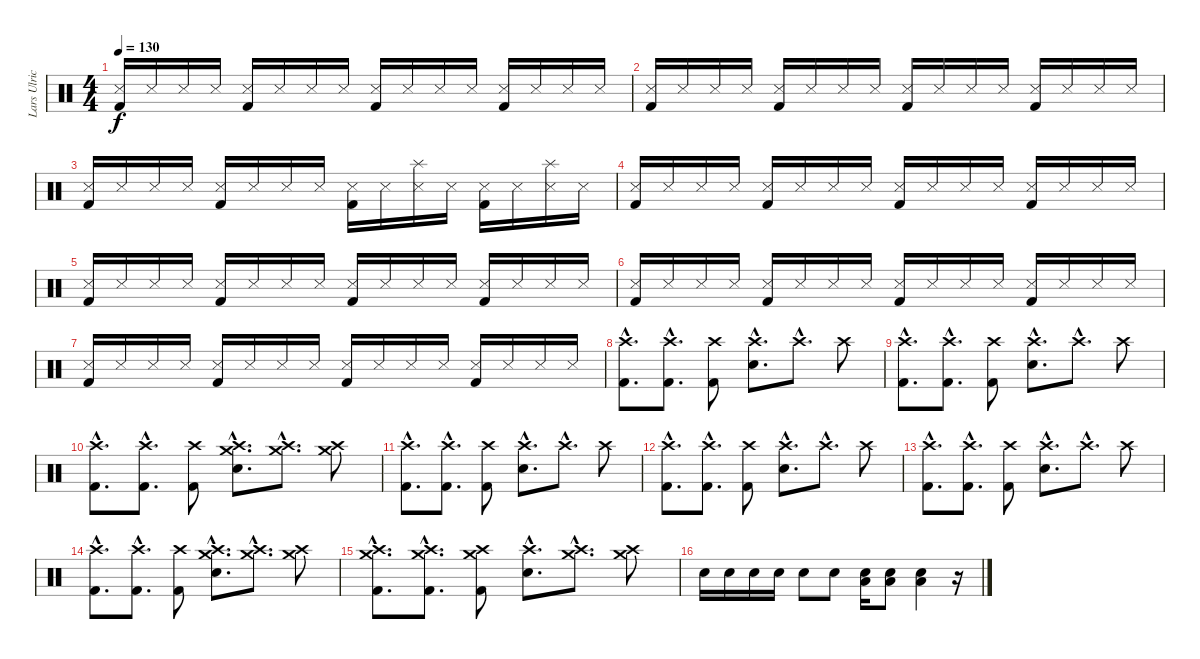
\track ("Lars Ulrich" "Lars Ulric") {instrument percussion}
\staff {score}
\articulation defaults
\ts (4 4)
\tempo 130
\clef neutral
\ks c
("Metronome (hit)" "Kick (hit) 2").16{dy f} "Snare (side stick) 3".16 "Snare (side stick) 3".16 "Snare (side stick) 3".16 ("Metronome (hit)" "Kick (hit) 2").16 "Snare (side stick) 3".16 "Snare (side stick) 3".16 "Snare (side stick) 3".16 ("Metronome (hit)" "Kick (hit) 2").16 "Snare (side stick) 3".16 "Snare (side stick) 3".16 "Snare (side stick) 3".16 ("Metronome (hit)" "Kick (hit) 2").16 "Snare (side stick) 3".16 "Snare (side stick) 3".16 "Snare (side stick) 3".16 |
("Metronome (hit)" "Kick (hit) 2").16 "Snare (side stick) 3".16 "Snare (side stick) 3".16 "Snare (side stick) 3".16 ("Metronome (hit)" "Kick (hit) 2").16 "Snare (side stick) 3".16 "Snare (side stick) 3".16 "Snare (side stick) 3".16 ("Metronome (hit)" "Kick (hit) 2").16 "Snare (side stick) 3".16 "Snare (side stick) 3".16 "Snare (side stick) 3".16 ("Metronome (hit)" "Kick (hit) 2").16 "Snare (side stick) 3".16 "Snare (side stick) 3".16 "Snare (side stick) 3".16 |
("Metronome (hit)" "Kick (hit) 2").16 "Snare (side stick) 3".16 "Snare (side stick) 3".16 "Snare (side stick) 3".16 ("Metronome (hit)" "Kick (hit) 2").16 "Snare (side stick) 3".16 "Snare (side stick) 3".16 "Snare (side stick) 3".16 ("Metronome (hit)" "Kick (hit) 2").16 "Snare (side stick) 3".16 ("Splash (hit)" "Snare (side stick) 3").16 "Snare (side stick) 3".16 ("Metronome (hit)" "Kick (hit) 2").16 "Snare (side stick) 3".16 ("Splash (hit)" "Snare (side stick) 3").16 "Snare (side stick) 3".16 |
("Metronome (hit)" "Kick (hit) 2").16 "Snare (side stick) 3".16 "Snare (side stick) 3".16 "Snare (side stick) 3".16 ("Metronome (hit)" "Kick (hit) 2").16 "Snare (side stick) 3".16 "Snare (side stick) 3".16 "Snare (side stick) 3".16 ("Metronome (hit)" "Kick (hit) 2").16 "Snare (side stick) 3".16 "Snare (side stick) 3".16 "Snare (side stick) 3".16 ("Metronome (hit)" "Kick (hit) 2").16 "Snare (side stick) 3".16 "Snare (side stick) 3".16 "Snare (side stick) 3".16 |
("Metronome (hit)" "Kick (hit) 2").16 "Snare (side stick) 3".16 "Snare (side stick) 3".16 "Snare (side stick) 3".16 ("Metronome (hit)" "Kick (hit) 2").16 "Snare (side stick) 3".16 "Snare (side stick) 3".16 "Snare (side stick) 3".16 ("Metronome (hit)" "Kick (hit) 2").16 "Snare (side stick) 3".16 "Snare (side stick) 3".16 "Snare (side stick) 3".16 ("Metronome (hit)" "Kick (hit) 2").16 "Snare (side stick) 3".16 "Snare (side stick) 3".16 "Snare (side stick) 3".16 |
("Metronome (hit)" "Kick (hit) 2").16 "Snare (side stick) 3".16 "Snare (side stick) 3".16 "Snare (side stick) 3".16 ("Metronome (hit)" "Kick (hit) 2").16 "Snare (side stick) 3".16 "Snare (side stick) 3".16 "Snare (side stick) 3".16 ("Metronome (hit)" "Kick (hit) 2").16 "Snare (side stick) 3".16 "Snare (side stick) 3".16 "Snare (side stick) 3".16 ("Metronome (hit)" "Kick (hit) 2").16 "Snare (side stick) 3".16 "Snare (side stick) 3".16 "Snare (side stick) 3".16 |
("Metronome (hit)" "Kick (hit) 2").16 "Snare (side stick) 3".16 "Snare (side stick) 3".16 "Snare (side stick) 3".16 ("Metronome (hit)" "Kick (hit) 2").16 "Snare (side stick) 3".16 "Snare (side stick) 3".16 "Snare (side stick) 3".16 ("Metronome (hit)" "Kick (hit) 2").16 "Snare (side stick) 3".16 "Snare (side stick) 3".16 "Snare (side stick) 3".16 ("Metronome (hit)" "Kick (hit) 2").16 "Snare (side stick) 3".16 "Snare (side stick) 3".16 "Snare (side stick) 3".16 |
("Crash high (hit)"{hac} "Kick (hit) 2"{hac}).8{d} ("Crash high (hit)"{hac} "Kick (hit) 2"{hac}).8{d} ("Crash high (hit)" "Kick (hit) 2").8 ("Crash high (hit)"{hac} "Electric Snare (hit)"{hac}).8{d} "Crash high (hit)"{hac}.8{d} "Crash high (hit)".8 |
("Crash high (hit)"{hac} "Kick (hit) 2"{hac}).8{d} ("Crash high (hit)"{hac} "Kick (hit) 2"{hac}).8{d} ("Crash high (hit)" "Kick (hit) 2").8 ("Crash high (hit)"{hac} "Electric Snare (hit)"{hac}).8{d} "Crash high (hit)"{hac}.8{d} "Crash high (hit)".8 |
("Crash high (hit)"{hac} "Kick (hit) 2"{hac}).8{d} ("Crash high (hit)"{hac} "Kick (hit) 2"{hac}).8{d} ("Crash high (hit)" "Kick (hit) 2").8 ("Crash medium (hit)"{hac} "Crash high (hit)"{hac} "Electric Snare (hit)"{hac}).8{d} ("Crash medium (hit)"{hac} "Crash high (hit)"{hac}).8{d} ("Crash medium (hit)" "Crash high (hit)").8 |
("Crash high (hit)"{hac} "Kick (hit) 2"{hac}).8{d} ("Crash high (hit)"{hac} "Kick (hit) 2"{hac}).8{d} ("Crash high (hit)" "Kick (hit) 2").8 ("Crash high (hit)"{hac} "Electric Snare (hit)"{hac}).8{d} "Crash high (hit)"{hac}.8{d} "Crash high (hit)".8 |
("Crash high (hit)"{hac} "Kick (hit) 2"{hac}).8{d} ("Crash high (hit)"{hac} "Kick (hit) 2"{hac}).8{d} ("Crash high (hit)" "Kick (hit) 2").8 ("Crash high (hit)"{hac} "Electric Snare (hit)"{hac}).8{d} "Crash high (hit)"{hac}.8{d} "Crash high (hit)".8 |
("Crash high (hit)"{hac} "Kick (hit) 2"{hac}).8{d} ("Crash high (hit)"{hac} "Kick (hit) 2"{hac}).8{d} ("Crash high (hit)" "Kick (hit) 2").8 ("Crash high (hit)"{hac} "Electric Snare (hit)"{hac}).8{d} "Crash high (hit)"{hac}.8{d} "Crash high (hit)".8 |
("Crash high (hit)"{hac} "Kick (hit) 2"{hac}).8{d} ("Crash high (hit)"{hac} "Kick (hit) 2"{hac}).8{d} ("Crash high (hit)" "Kick (hit) 2").8 ("Crash medium (hit)"{hac} "Crash high (hit)"{hac} "Electric Snare (hit)"{hac}).8{d} ("Crash medium (hit)"{hac} "Crash high (hit)"{hac}).8{d} ("Crash medium (hit)" "Crash high (hit)").8 |
("Crash medium (hit)"{hac} "Crash high (hit)"{hac} "Kick (hit) 2"{hac}).8{d} ("Crash medium (hit)"{hac} "Crash high (hit)"{hac} "Kick (hit) 2"{hac}).8{d} ("Crash medium (hit)" "Crash high (hit)" "Kick (hit) 2").8 ("Crash high (hit)"{hac} "Electric Snare (hit)"{hac}).8{d} ("Crash medium (hit)"{hac} "Crash high (hit)"{hac}).8{d} ("Crash medium (hit)" "Crash high (hit)").8 |
"Electric Snare (hit)".16 "Electric Snare (hit)".16 "Electric Snare (hit)".16 "Electric Snare (hit)".16 "Electric Snare (hit)".8 "Electric Snare (hit)".8 ("Electric Snare (hit)" "Low Floor Tom (hit)").16 ("Electric Snare (hit)" "Low Floor Tom (hit)").8 ("Electric Snare (hit)" "Low Floor Tom (hit)").4 r.16
